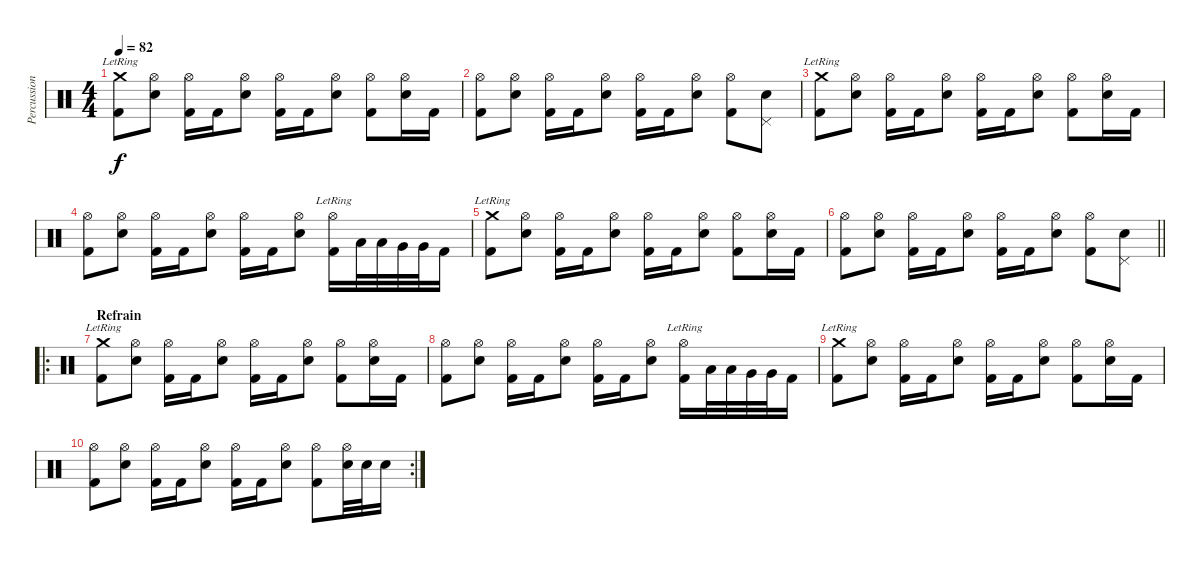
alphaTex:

\track ("Percussions" "Percussion") {instrument percussion}
\staff {score}
\articulation defaults
\ts (4 4)
\tempo 82
\clef neutral
\ks c
("Crash medium (hit)"{lr} "Kick (hit) 2").8{dy f} ("Hi-Hat (open)" "Snare (hit) 2").8 ("Hi-Hat (open)" "Kick (hit) 2").16 "Kick (hit) 2".16 ("Hi-Hat (open)" "Snare (hit) 2").8 ("Hi-Hat (open)" "Kick (hit) 2").16 "Kick (hit) 2".16 ("Hi-Hat (open)" "Snare (hit) 2").8 ("Hi-Hat (open)" "Kick (hit) 2").8 ("Hi-Hat (open)" "Snare (hit) 2").16 "Kick (hit) 2".16 |
("Hi-Hat (open)" "Kick (hit) 2").8 ("Hi-Hat (open)" "Snare (hit) 2").8 ("Hi-Hat (open)" "Kick (hit) 2").16 "Kick (hit) 2".16 ("Hi-Hat (open)" "Snare (hit) 2").8 ("Hi-Hat (open)" "Kick (hit) 2").16 "Kick (hit) 2".16 ("Hi-Hat (open)" "Snare (hit) 2").8 ("Hi-Hat (open)" "Kick (hit) 2").8 ("Pedal Hi-Hat (hit)" "Snare (hit) 2").8 |
("Crash medium (hit)"{lr} "Kick (hit) 2").8 ("Hi-Hat (open)" "Snare (hit) 2").8 ("Hi-Hat (open)" "Kick (hit) 2").16 "Kick (hit) 2".16 ("Hi-Hat (open)" "Snare (hit) 2").8 ("Hi-Hat (open)" "Kick (hit) 2").16 "Kick (hit) 2".16 ("Hi-Hat (open)" "Snare (hit) 2").8 ("Hi-Hat (open)" "Kick (hit) 2").8 ("Hi-Hat (open)" "Snare (hit) 2").16 "Kick (hit) 2".16 |
("Hi-Hat (open)" "Kick (hit) 2").8 ("Hi-Hat (open)" "Snare (hit) 2").8 ("Hi-Hat (open)" "Kick (hit) 2").16 "Kick (hit) 2".16 ("Hi-Hat (open)" "Snare (hit) 2").8 ("Hi-Hat (open)" "Kick (hit) 2").16 "Kick (hit) 2".16 ("Hi-Hat (open)" "Snare (hit) 2").8 ("Hi-Hat (open)"{lr} "Kick (hit) 2").16 "Low Tom (hit)".32 "Low Tom (hit)".32 "Very Low Tom (hit)".32 "Very Low Tom (hit)".32 "Kick (hit) 2".16 |
("Crash medium (hit)"{lr} "Kick (hit) 2").8 ("Hi-Hat (open)" "Snare (hit) 2").8 ("Hi-Hat (open)" "Kick (hit) 2").16 "Kick (hit) 2".16 ("Hi-Hat (open)" "Snare (hit) 2").8 ("Hi-Hat (open)" "Kick (hit) 2").16 "Kick (hit) 2".16 ("Hi-Hat (open)" "Snare (hit) 2").8 ("Hi-Hat (open)" "Kick (hit) 2").8 ("Hi-Hat (open)" "Snare (hit) 2").16 "Kick (hit) 2".16 |
\barLineRight lightlight
("Hi-Hat (open)" "Kick (hit) 2").8 ("Hi-Hat (open)" "Snare (hit) 2").8 ("Hi-Hat (open)" "Kick (hit) 2").16 "Kick (hit) 2".16 ("Hi-Hat (open)" "Snare (hit) 2").8 ("Hi-Hat (open)" "Kick (hit) 2").16 "Kick (hit) 2".16 ("Hi-Hat (open)" "Snare (hit) 2").8 ("Hi-Hat (open)" "Kick (hit) 2").8 ("Pedal Hi-Hat (hit)" "Snare (hit) 2").8 |
\ro
\section ("" "Refrain")
("Crash medium (hit)"{lr} "Kick (hit) 2").8 ("Hi-Hat (open)" "Snare (hit) 2").8 ("Hi-Hat (open)" "Kick (hit) 2").16 "Kick (hit) 2".16 ("Hi-Hat (open)" "Snare (hit) 2").8 ("Hi-Hat (open)" "Kick (hit) 2").16 "Kick (hit) 2".16 ("Hi-Hat (open)" "Snare (hit) 2").8 ("Hi-Hat (open)" "Kick (hit) 2").8 ("Hi-Hat (open)" "Snare (hit) 2").16 "Kick (hit) 2".16 |
("Hi-Hat (open)" "Kick (hit) 2").8 ("Hi-Hat (open)" "Snare (hit) 2").8 ("Hi-Hat (open)" "Kick (hit) 2").16 "Kick (hit) 2".16 ("Hi-Hat (open)" "Snare (hit) 2").8 ("Hi-Hat (open)" "Kick (hit) 2").16 "Kick (hit) 2".16 ("Hi-Hat (open)" "Snare (hit) 2").8 ("Hi-Hat (open)"{lr} "Kick (hit) 2").16 "Low Tom (hit)".32 "Low Tom (hit)".32 "Very Low Tom (hit)".32 "Very Low Tom (hit)".32 "Kick (hit) 2".16 |
("Crash medium (hit)"{lr} "Kick (hit) 2").8 ("Hi-Hat (open)" "Snare (hit) 2").8 ("Hi-Hat (open)" "Kick (hit) 2").16 "Kick (hit) 2".16 ("Hi-Hat (open)" "Snare (hit) 2").8 ("Hi-Hat (open)" "Kick (hit) 2").16 "Kick (hit) 2".16 ("Hi-Hat (open)" "Snare (hit) 2").8 ("Hi-Hat (open)" "Kick (hit) 2").8 ("Hi-Hat (open)" "Snare (hit) 2").16 "Kick (hit) 2".16 |
\rc 2
("Hi-Hat (open)" "Kick (hit) 2").8 ("Hi-Hat (open)" "Snare (hit) 2").8 ("Hi-Hat (open)" "Kick (hit) 2").16 "Kick (hit) 2".16 ("Hi-Hat (open)" "Snare (hit) 2").8 ("Hi-Hat (open)" "Kick (hit) 2").16 "Kick (hit) 2".16 ("Hi-Hat (open)" "Snare (hit) 2").8 ("Hi-Hat (open)" "Kick (hit) 2").8 ("Hi-Hat (open)" "Snare (hit) 2").32 "Snare (hit) 2".32 "Snare (hit) 2".16
